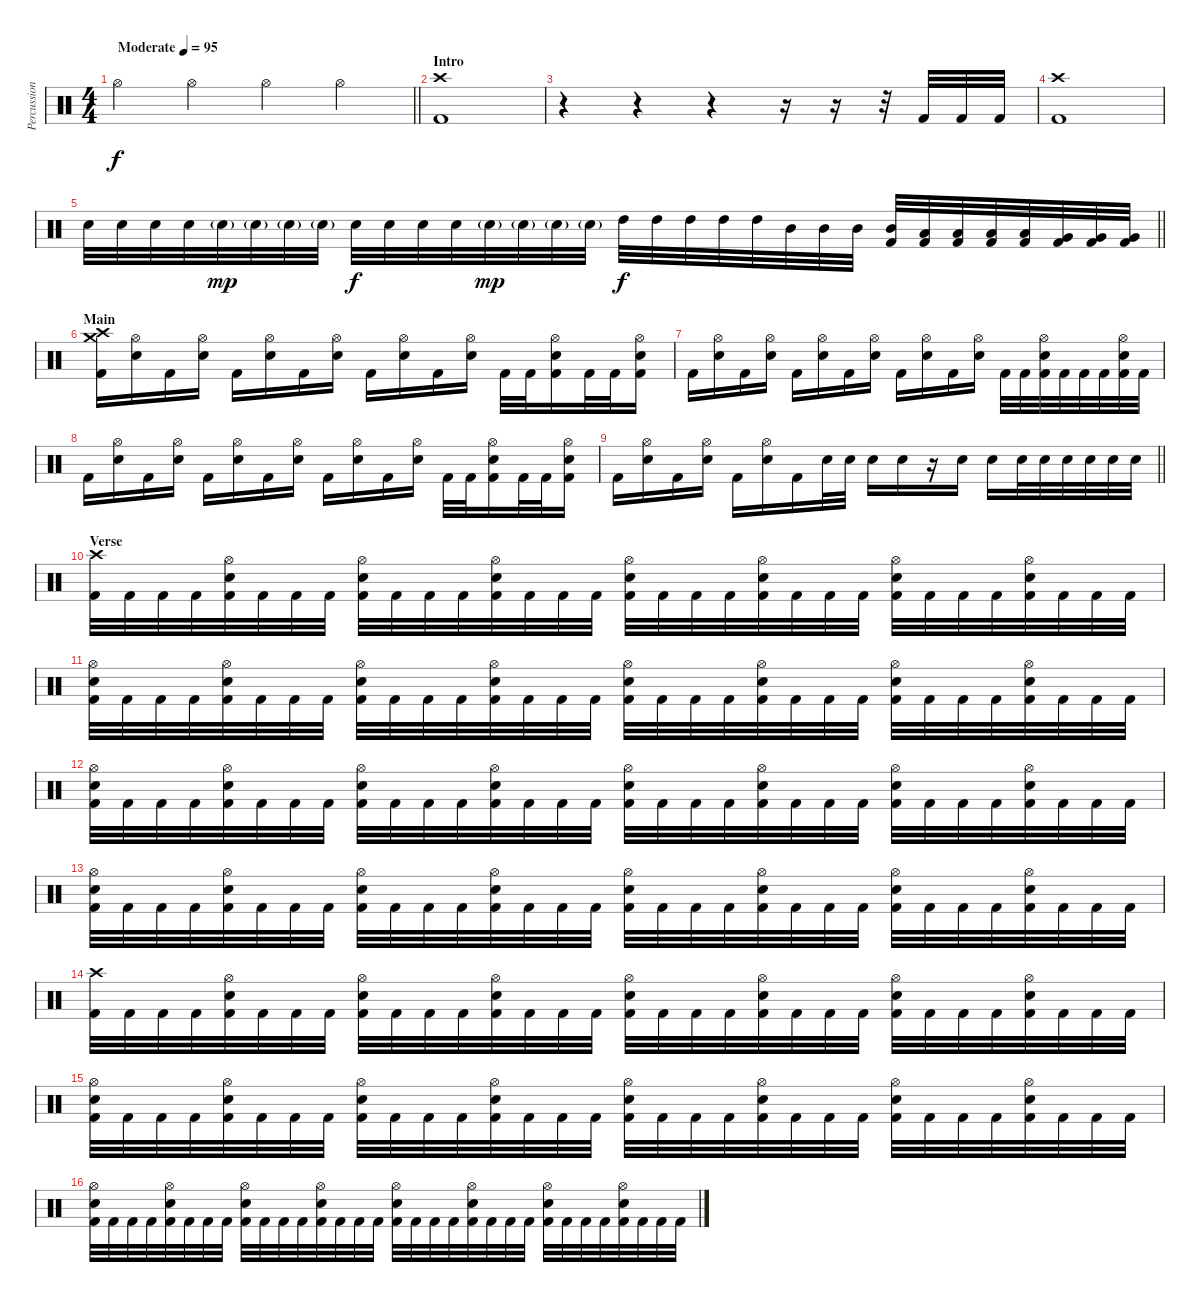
\track ("Percussion" "Percussion") {instrument percussion}
\staff {score}
\articulation defaults
\ts (4 4)
\tempo (95 "Moderate")
\clef neutral
\barLineRight lightlight
\ks c "Hi-Hat (open)".4{dy f} "Hi-Hat (open)".4 "Hi-Hat (open)".4 "Hi-Hat (open)".4
|
\section ("" "Intro")
("Crash high (hit)" "Kick (hit) 2").1 |
r.4 r.4 r.4 r.16 r.16 r.32 "Kick (hit) 2".32 "Kick (hit) 2".32 "Kick (hit) 2".32 |
("Crash high (hit)" "Kick (hit) 2").1 |
\barLineRight lightlight "Electric Snare (hit)".32 "Electric Snare (hit)".32 "Electric Snare (hit)".32 "Electric Snare (hit)".32 "Electric Snare (hit)"{g}.32{dy mp} "Electric Snare (hit)"{g}.32 "Electric Snare (hit)"{g}.32 "Electric Snare (hit)"{g}.32 "Electric Snare (hit)".32{dy f} "Electric Snare (hit)".32 "Electric Snare (hit)".32 "Electric Snare (hit)".32 "Electric Snare (hit)"{g}.32{dy mp} "Electric Snare (hit)"{g}.32 "Electric Snare (hit)"{g}.32 "Electric Snare (hit)"{g}.32 "High Tom (hit)".32{dy f} "High Tom (hit)".32 "High Tom (hit)".32 "High Tom (hit)".32 "High Tom (hit)".32 "Mid Tom (hit)".32 "Mid Tom (hit)".32 "Mid Tom (hit)".32
("Mid Tom (hit)" "Kick (hit) 2").32 ("Low Tom (hit)" "Kick (hit) 2").32 ("Low Tom (hit)" "Kick (hit) 2").32 ("Low Tom (hit)" "Kick (hit) 2").32 ("Low Tom (hit)" "Kick (hit) 2").32 ("Very Low Tom (hit)" "Kick (hit) 2").32 ("Very Low Tom (hit)" "Kick (hit) 2").32 ("Very Low Tom (hit)" "Kick (hit) 2").32 |
\section ("" "Main")
("Crash medium (hit)" "Crash high (hit)" "Kick (hit) 2").16 ("Hi-Hat (open)" "Electric Snare (hit)").16 "Kick (hit) 2".16 ("Hi-Hat (open)" "Electric Snare (hit)").16 "Kick (hit) 2".16 ("Hi-Hat (open)" "Electric Snare (hit)").16 "Kick (hit) 2".16 ("Hi-Hat (open)" "Electric Snare (hit)").16 "Kick (hit) 2".16 ("Hi-Hat (open)" "Electric Snare (hit)").16 "Kick (hit) 2".16 ("Hi-Hat (open)" "Electric Snare (hit)").16 "Kick (hit) 2".32 "Kick (hit) 2".32 ("Hi-Hat (open)" "Electric Snare (hit)" "Kick (hit) 2").16 "Kick (hit) 2".32 "Kick (hit) 2".32 ("Hi-Hat (open)" "Electric Snare (hit)" "Kick (hit) 2").16 |
"Kick (hit) 2".16 ("Hi-Hat (open)" "Electric Snare (hit)").16 "Kick (hit) 2".16 ("Hi-Hat (open)" "Electric Snare (hit)").16 "Kick (hit) 2".16 ("Hi-Hat (open)" "Electric Snare (hit)").16 "Kick (hit) 2".16 ("Hi-Hat (open)" "Electric Snare (hit)").16 "Kick (hit) 2".16 ("Hi-Hat (open)" "Electric Snare (hit)").16 "Kick (hit) 2".16 ("Hi-Hat (open)" "Electric Snare (hit)").16 "Kick (hit) 2".32 "Kick (hit) 2".32 ("Hi-Hat (open)" "Electric Snare (hit)" "Kick (hit) 2").32 "Kick (hit) 2".32 "Kick (hit) 2".32 "Kick (hit) 2".32 ("Hi-Hat (open)" "Electric Snare (hit)" "Kick (hit) 2").32 "Kick (hit) 2".32 |
"Kick (hit) 2".16 ("Hi-Hat (open)" "Electric Snare (hit)").16 "Kick (hit) 2".16 ("Hi-Hat (open)" "Electric Snare (hit)").16 "Kick (hit) 2".16 ("Hi-Hat (open)" "Electric Snare (hit)").16 "Kick (hit) 2".16 ("Hi-Hat (open)" "Electric Snare (hit)").16 "Kick (hit) 2".16 ("Hi-Hat (open)" "Electric Snare (hit)").16 "Kick (hit) 2".16 ("Hi-Hat (open)" "Electric Snare (hit)").16 "Kick (hit) 2".32 "Kick (hit) 2".32 ("Hi-Hat (open)" "Electric Snare (hit)" "Kick (hit) 2").16 "Kick (hit) 2".32 "Kick (hit) 2".32 ("Hi-Hat (open)" "Electric Snare (hit)" "Kick (hit) 2").16 |
\barLineRight lightlight "Kick (hit) 2".16
("Hi-Hat (open)" "Electric Snare (hit)").16 "Kick (hit) 2".16 ("Hi-Hat (open)" "Electric Snare (hit)").16 "Kick (hit) 2".16 ("Hi-Hat (open)" "Electric Snare (hit)").16 "Kick (hit) 2".16 "Electric Snare (hit)".32 "Electric Snare (hit)".32 "Electric Snare (hit)".16 "Electric Snare (hit)".16 r.16 "Electric Snare (hit)".16 "Electric Snare (hit)".16 "Electric Snare (hit)".32 "Electric Snare (hit)".32 "Electric Snare (hit)".32 "Electric Snare (hit)".32 "Electric Snare (hit)".32 "Electric Snare (hit)".32 |
\section ("" "Verse")
("Crash high (hit)" "Kick (hit) 2").32 "Kick (hit) 2".32 "Kick (hit) 2".32 "Kick (hit) 2".32 ("Hi-Hat (open)" "Electric Snare (hit)" "Kick (hit) 2").32 "Kick (hit) 2".32 "Kick (hit) 2".32 "Kick (hit) 2".32 ("Hi-Hat (open)" "Electric Snare (hit)" "Kick (hit) 2").32 "Kick (hit) 2".32 "Kick (hit) 2".32 "Kick (hit) 2".32 ("Hi-Hat (open)" "Electric Snare (hit)" "Kick (hit) 2").32 "Kick (hit) 2".32 "Kick (hit) 2".32 "Kick (hit) 2".32 ("Hi-Hat (open)" "Electric Snare (hit)" "Kick (hit) 2").32 "Kick (hit) 2".32 "Kick (hit) 2".32 "Kick (hit) 2".32 ("Hi-Hat (open)" "Electric Snare (hit)" "Kick (hit) 2").32 "Kick (hit) 2".32 "Kick (hit) 2".32 "Kick (hit) 2".32 ("Hi-Hat (open)" "Electric Snare (hit)" "Kick (hit) 2").32 "Kick (hit) 2".32 "Kick (hit) 2".32 "Kick (hit) 2".32 ("Hi-Hat (open)" "Electric Snare (hit)" "Kick (hit) 2").32 "Kick (hit) 2".32 "Kick (hit) 2".32 "Kick (hit) 2".32 |
("Hi-Hat (open)" "Electric Snare (hit)" "Kick (hit) 2").32 "Kick (hit) 2".32 "Kick (hit) 2".32 "Kick (hit) 2".32 ("Hi-Hat (open)" "Electric Snare (hit)" "Kick (hit) 2").32 "Kick (hit) 2".32 "Kick (hit) 2".32 "Kick (hit) 2".32 ("Hi-Hat (open)" "Electric Snare (hit)" "Kick (hit) 2").32 "Kick (hit) 2".32 "Kick (hit) 2".32 "Kick (hit) 2".32 ("Hi-Hat (open)" "Electric Snare (hit)" "Kick (hit) 2").32 "Kick (hit) 2".32 "Kick (hit) 2".32 "Kick (hit) 2".32 ("Hi-Hat (open)" "Electric Snare (hit)" "Kick (hit) 2").32 "Kick (hit) 2".32 "Kick (hit) 2".32 "Kick (hit) 2".32 ("Hi-Hat (open)" "Electric Snare (hit)" "Kick (hit) 2").32 "Kick (hit) 2".32 "Kick (hit) 2".32 "Kick (hit) 2".32 ("Hi-Hat (open)" "Electric Snare (hit)" "Kick (hit) 2").32 "Kick (hit) 2".32 "Kick (hit) 2".32 "Kick (hit) 2".32 ("Hi-Hat (open)" "Electric Snare (hit)" "Kick (hit) 2").32 "Kick (hit) 2".32 "Kick (hit) 2".32 "Kick (hit) 2".32 |
("Hi-Hat (open)" "Electric Snare (hit)" "Kick (hit) 2").32 "Kick (hit) 2".32 "Kick (hit) 2".32 "Kick (hit) 2".32 ("Hi-Hat (open)" "Electric Snare (hit)" "Kick (hit) 2").32 "Kick (hit) 2".32 "Kick (hit) 2".32 "Kick (hit) 2".32 ("Hi-Hat (open)" "Electric Snare (hit)" "Kick (hit) 2").32 "Kick (hit) 2".32 "Kick (hit) 2".32 "Kick (hit) 2".32 ("Hi-Hat (open)" "Electric Snare (hit)" "Kick (hit) 2").32 "Kick (hit) 2".32 "Kick (hit) 2".32 "Kick (hit) 2".32 ("Hi-Hat (open)" "Electric Snare (hit)" "Kick (hit) 2").32 "Kick (hit) 2".32 "Kick (hit) 2".32 "Kick (hit) 2".32 ("Hi-Hat (open)" "Electric Snare (hit)" "Kick (hit) 2").32 "Kick (hit) 2".32 "Kick (hit) 2".32 "Kick (hit) 2".32 ("Hi-Hat (open)" "Electric Snare (hit)" "Kick (hit) 2").32 "Kick (hit) 2".32 "Kick (hit) 2".32 "Kick (hit) 2".32 ("Hi-Hat (open)" "Electric Snare (hit)" "Kick (hit) 2").32 "Kick (hit) 2".32 "Kick (hit) 2".32 "Kick (hit) 2".32 |
("Hi-Hat (open)" "Electric Snare (hit)" "Kick (hit) 2").32 "Kick (hit) 2".32 "Kick (hit) 2".32 "Kick (hit) 2".32 ("Hi-Hat (open)" "Electric Snare (hit)" "Kick (hit) 2").32 "Kick (hit) 2".32 "Kick (hit) 2".32 "Kick (hit) 2".32 ("Hi-Hat (open)" "Electric Snare (hit)" "Kick (hit) 2").32 "Kick (hit) 2".32 "Kick (hit) 2".32 "Kick (hit) 2".32 ("Hi-Hat (open)" "Electric Snare (hit)" "Kick (hit) 2").32 "Kick (hit) 2".32 "Kick (hit) 2".32 "Kick (hit) 2".32 ("Hi-Hat (open)" "Electric Snare (hit)" "Kick (hit) 2").32 "Kick (hit) 2".32 "Kick (hit) 2".32 "Kick (hit) 2".32 ("Hi-Hat (open)" "Electric Snare (hit)" "Kick (hit) 2").32 "Kick (hit) 2".32 "Kick (hit) 2".32 "Kick (hit) 2".32 ("Hi-Hat (open)" "Electric Snare (hit)" "Kick (hit) 2").32 "Kick (hit) 2".32 "Kick (hit) 2".32 "Kick (hit) 2".32 ("Hi-Hat (open)" "Electric Snare (hit)" "Kick (hit) 2").32 "Kick (hit) 2".32 "Kick (hit) 2".32 "Kick (hit) 2".32 |
("Crash high (hit)" "Kick (hit) 2").32 "Kick (hit) 2".32 "Kick (hit) 2".32 "Kick (hit) 2".32 ("Hi-Hat (open)" "Electric Snare (hit)" "Kick (hit) 2").32 "Kick (hit) 2".32 "Kick (hit) 2".32 "Kick (hit) 2".32 ("Hi-Hat (open)" "Electric Snare (hit)" "Kick (hit) 2").32 "Kick (hit) 2".32 "Kick (hit) 2".32 "Kick (hit) 2".32 ("Hi-Hat (open)" "Electric Snare (hit)" "Kick (hit) 2").32 "Kick (hit) 2".32 "Kick (hit) 2".32 "Kick (hit) 2".32 ("Hi-Hat (open)" "Electric Snare (hit)" "Kick (hit) 2").32 "Kick (hit) 2".32 "Kick (hit) 2".32 "Kick (hit) 2".32 ("Hi-Hat (open)" "Electric Snare (hit)" "Kick (hit) 2").32 "Kick (hit) 2".32 "Kick (hit) 2".32 "Kick (hit) 2".32 ("Hi-Hat (open)" "Electric Snare (hit)" "Kick (hit) 2").32 "Kick (hit) 2".32 "Kick (hit) 2".32 "Kick (hit) 2".32 ("Hi-Hat (open)" "Electric Snare (hit)" "Kick (hit) 2").32 "Kick (hit) 2".32 "Kick (hit) 2".32 "Kick (hit) 2".32 |
("Hi-Hat (open)" "Electric Snare (hit)" "Kick (hit) 2").32 "Kick (hit) 2".32 "Kick (hit) 2".32 "Kick (hit) 2".32 ("Hi-Hat (open)" "Electric Snare (hit)" "Kick (hit) 2").32 "Kick (hit) 2".32 "Kick (hit) 2".32 "Kick (hit) 2".32 ("Hi-Hat (open)" "Electric Snare (hit)" "Kick (hit) 2").32 "Kick (hit) 2".32 "Kick (hit) 2".32 "Kick (hit) 2".32 ("Hi-Hat (open)" "Electric Snare (hit)" "Kick (hit) 2").32 "Kick (hit) 2".32 "Kick (hit) 2".32 "Kick (hit) 2".32 ("Hi-Hat (open)" "Electric Snare (hit)" "Kick (hit) 2").32 "Kick (hit) 2".32 "Kick (hit) 2".32 "Kick (hit) 2".32 ("Hi-Hat (open)" "Electric Snare (hit)" "Kick (hit) 2").32 "Kick (hit) 2".32 "Kick (hit) 2".32 "Kick (hit) 2".32 ("Hi-Hat (open)" "Electric Snare (hit)" "Kick (hit) 2").32 "Kick (hit) 2".32 "Kick (hit) 2".32 "Kick (hit) 2".32 ("Hi-Hat (open)" "Electric Snare (hit)" "Kick (hit) 2").32 "Kick (hit) 2".32 "Kick (hit) 2".32 "Kick (hit) 2".32 |
("Hi-Hat (open)" "Electric Snare (hit)" "Kick (hit) 2").32 "Kick (hit) 2".32 "Kick (hit) 2".32 "Kick (hit) 2".32 ("Hi-Hat (open)" "Electric Snare (hit)" "Kick (hit) 2").32 "Kick (hit) 2".32 "Kick (hit) 2".32 "Kick (hit) 2".32 ("Hi-Hat (open)" "Electric Snare (hit)" "Kick (hit) 2").32 "Kick (hit) 2".32 "Kick (hit) 2".32 "Kick (hit) 2".32 ("Hi-Hat (open)" "Electric Snare (hit)" "Kick (hit) 2").32 "Kick (hit) 2".32 "Kick (hit) 2".32 "Kick (hit) 2".32 ("Hi-Hat (open)" "Electric Snare (hit)" "Kick (hit) 2").32 "Kick (hit) 2".32 "Kick (hit) 2".32 "Kick (hit) 2".32 ("Hi-Hat (open)" "Electric Snare (hit)" "Kick (hit) 2").32 "Kick (hit) 2".32 "Kick (hit) 2".32 "Kick (hit) 2".32 ("Hi-Hat (open)" "Electric Snare (hit)" "Kick (hit) 2").32 "Kick (hit) 2".32 "Kick (hit) 2".32 "Kick (hit) 2".32 ("Hi-Hat (open)" "Electric Snare (hit)" "Kick (hit) 2").32 "Kick (hit) 2".32 "Kick (hit) 2".32 "Kick (hit) 2".32
